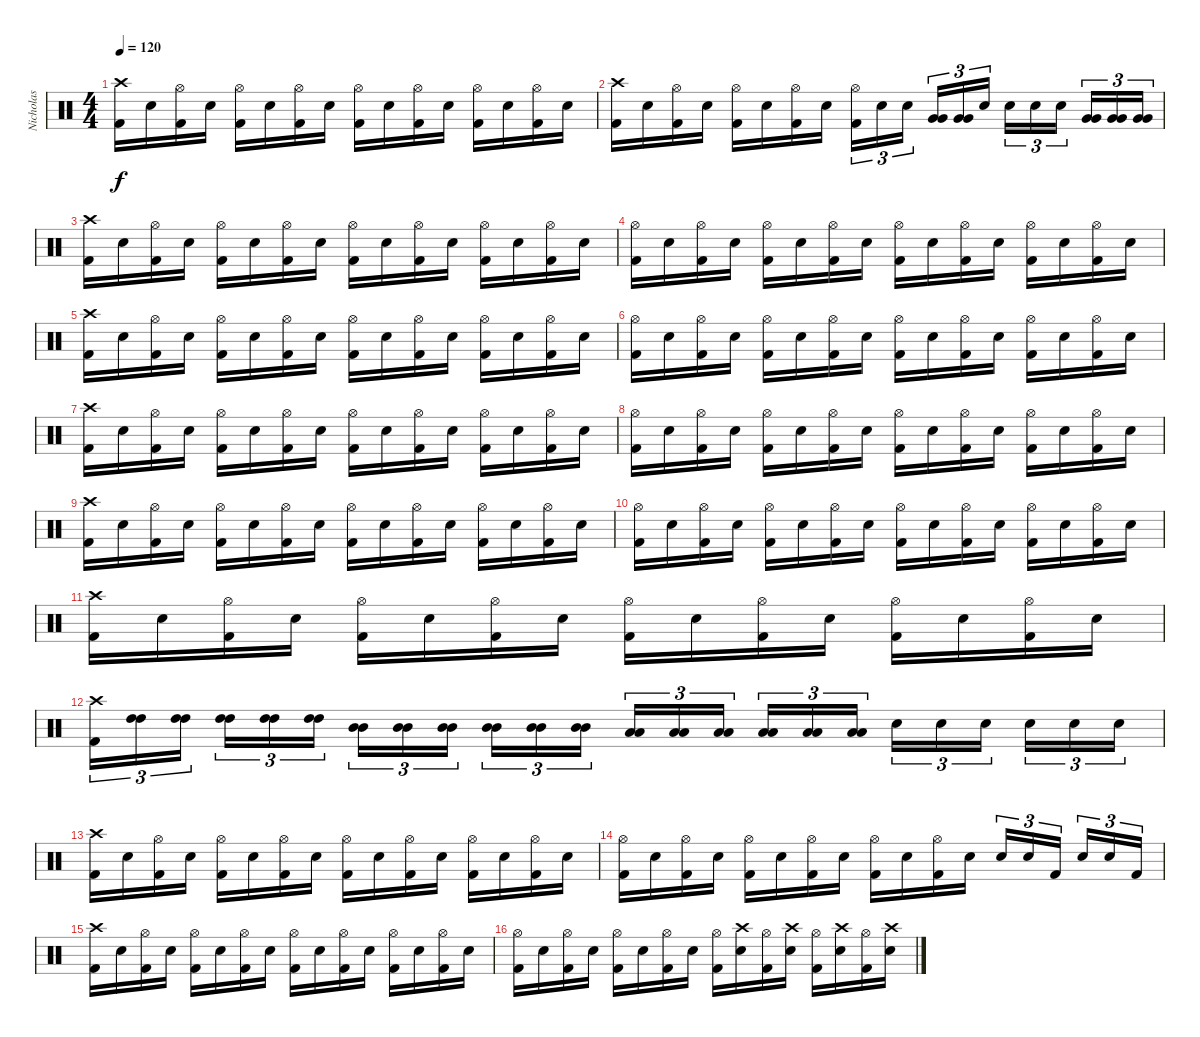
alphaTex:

\track ("Nicholas" "Nicholas") {instrument percussion}
\staff {score}
\articulation defaults
\ts (4 4)
\tempo 120
\clef neutral
\ks c
("Crash high (hit)" "Kick (hit) 2").16{dy f} "Electric Snare (hit)".16 ("Hi-Hat (open)" "Kick (hit) 2").16 "Electric Snare (hit)".16 ("Hi-Hat (open)" "Kick (hit) 2").16 "Electric Snare (hit)".16 ("Hi-Hat (open)" "Kick (hit) 2").16 "Electric Snare (hit)".16 ("Hi-Hat (open)" "Kick (hit) 2").16 "Electric Snare (hit)".16 ("Hi-Hat (open)" "Kick (hit) 2").16 "Electric Snare (hit)".16 ("Hi-Hat (open)" "Kick (hit) 2").16 "Electric Snare (hit)".16 ("Hi-Hat (open)" "Kick (hit) 2").16 "Electric Snare (hit)".16 |
("Crash high (hit)" "Kick (hit) 2").16 "Electric Snare (hit)".16 ("Hi-Hat (open)" "Kick (hit) 2").16 "Electric Snare (hit)".16 ("Hi-Hat (open)" "Kick (hit) 2").16 "Electric Snare (hit)".16 ("Hi-Hat (open)" "Kick (hit) 2").16 "Electric Snare (hit)".16 ("Hi-Hat (open)" "Kick (hit) 2").16{tu (3 2)} "Electric Snare (hit)".16{tu (3 2)} "Electric Snare (hit)".16{tu (3 2)} ("Very Low Tom (hit)" "Very Low Tom (hit)").16{tu (3 2)} ("Very Low Tom (hit)" "Very Low Tom (hit)").16{tu (3 2)} "Electric Snare (hit)".16{tu (3 2)} "Electric Snare (hit)".16{tu (3 2)} "Electric Snare (hit)".16{tu (3 2)} "Electric Snare (hit)".16{tu (3 2)} ("Very Low Tom (hit)" "Very Low Tom (hit)").16{tu (3 2)} ("Very Low Tom (hit)" "Very Low Tom (hit)").16{tu (3 2)} ("Very Low Tom (hit)" "Very Low Tom (hit)").16{tu (3 2)} |
("Crash high (hit)" "Kick (hit) 2").16{balance 8} "Electric Snare (hit)".16 ("Hi-Hat (open)" "Kick (hit) 2").16 "Electric Snare (hit)".16 ("Hi-Hat (open)" "Kick (hit) 2").16 "Electric Snare (hit)".16 ("Hi-Hat (open)" "Kick (hit) 2").16 "Electric Snare (hit)".16 ("Hi-Hat (open)" "Kick (hit) 2").16 "Electric Snare (hit)".16 ("Hi-Hat (open)" "Kick (hit) 2").16 "Electric Snare (hit)".16 ("Hi-Hat (open)" "Kick (hit) 2").16 "Electric Snare (hit)".16 ("Hi-Hat (open)" "Kick (hit) 2").16 "Electric Snare (hit)".16 |
("Hi-Hat (open)" "Kick (hit) 2").16 "Electric Snare (hit)".16 ("Hi-Hat (open)" "Kick (hit) 2").16 "Electric Snare (hit)".16 ("Hi-Hat (open)" "Kick (hit) 2").16 "Electric Snare (hit)".16 ("Hi-Hat (open)" "Kick (hit) 2").16 "Electric Snare (hit)".16 ("Hi-Hat (open)" "Kick (hit) 2").16 "Electric Snare (hit)".16 ("Hi-Hat (open)" "Kick (hit) 2").16 "Electric Snare (hit)".16 ("Hi-Hat (open)" "Kick (hit) 2").16 "Electric Snare (hit)".16 ("Hi-Hat (open)" "Kick (hit) 2").16 "Electric Snare (hit)".16 |
("Crash high (hit)" "Kick (hit) 2").16 "Electric Snare (hit)".16 ("Hi-Hat (open)" "Kick (hit) 2").16 "Electric Snare (hit)".16 ("Hi-Hat (open)" "Kick (hit) 2").16 "Electric Snare (hit)".16 ("Hi-Hat (open)" "Kick (hit) 2").16 "Electric Snare (hit)".16 ("Hi-Hat (open)" "Kick (hit) 2").16 "Electric Snare (hit)".16 ("Hi-Hat (open)" "Kick (hit) 2").16 "Electric Snare (hit)".16 ("Hi-Hat (open)" "Kick (hit) 2").16 "Electric Snare (hit)".16 ("Hi-Hat (open)" "Kick (hit) 2").16 "Electric Snare (hit)".16 |
("Hi-Hat (open)" "Kick (hit) 2").16 "Electric Snare (hit)".16 ("Hi-Hat (open)" "Kick (hit) 2").16 "Electric Snare (hit)".16 ("Hi-Hat (open)" "Kick (hit) 2").16 "Electric Snare (hit)".16 ("Hi-Hat (open)" "Kick (hit) 2").16 "Electric Snare (hit)".16 ("Hi-Hat (open)" "Kick (hit) 2").16 "Electric Snare (hit)".16 ("Hi-Hat (open)" "Kick (hit) 2").16 "Electric Snare (hit)".16 ("Hi-Hat (open)" "Kick (hit) 2").16 "Electric Snare (hit)".16 ("Hi-Hat (open)" "Kick (hit) 2").16 "Electric Snare (hit)".16 |
("Crash high (hit)" "Kick (hit) 2").16 "Electric Snare (hit)".16 ("Hi-Hat (open)" "Kick (hit) 2").16 "Electric Snare (hit)".16 ("Hi-Hat (open)" "Kick (hit) 2").16 "Electric Snare (hit)".16 ("Hi-Hat (open)" "Kick (hit) 2").16 "Electric Snare (hit)".16 ("Hi-Hat (open)" "Kick (hit) 2").16 "Electric Snare (hit)".16 ("Hi-Hat (open)" "Kick (hit) 2").16 "Electric Snare (hit)".16 ("Hi-Hat (open)" "Kick (hit) 2").16 "Electric Snare (hit)".16 ("Hi-Hat (open)" "Kick (hit) 2").16 "Electric Snare (hit)".16 |
("Hi-Hat (open)" "Kick (hit) 2").16 "Electric Snare (hit)".16 ("Hi-Hat (open)" "Kick (hit) 2").16 "Electric Snare (hit)".16 ("Hi-Hat (open)" "Kick (hit) 2").16 "Electric Snare (hit)".16 ("Hi-Hat (open)" "Kick (hit) 2").16 "Electric Snare (hit)".16 ("Hi-Hat (open)" "Kick (hit) 2").16 "Electric Snare (hit)".16 ("Hi-Hat (open)" "Kick (hit) 2").16 "Electric Snare (hit)".16 ("Hi-Hat (open)" "Kick (hit) 2").16 "Electric Snare (hit)".16 ("Hi-Hat (open)" "Kick (hit) 2").16 "Electric Snare (hit)".16 |
("Crash high (hit)" "Kick (hit) 2").16 "Electric Snare (hit)".16 ("Hi-Hat (open)" "Kick (hit) 2").16 "Electric Snare (hit)".16 ("Hi-Hat (open)" "Kick (hit) 2").16 "Electric Snare (hit)".16 ("Hi-Hat (open)" "Kick (hit) 2").16 "Electric Snare (hit)".16 ("Hi-Hat (open)" "Kick (hit) 2").16 "Electric Snare (hit)".16 ("Hi-Hat (open)" "Kick (hit) 2").16 "Electric Snare (hit)".16 ("Hi-Hat (open)" "Kick (hit) 2").16 "Electric Snare (hit)".16 ("Hi-Hat (open)" "Kick (hit) 2").16 "Electric Snare (hit)".16 |
("Hi-Hat (open)" "Kick (hit) 2").16 "Electric Snare (hit)".16 ("Hi-Hat (open)" "Kick (hit) 2").16 "Electric Snare (hit)".16 ("Hi-Hat (open)" "Kick (hit) 2").16 "Electric Snare (hit)".16 ("Hi-Hat (open)" "Kick (hit) 2").16 "Electric Snare (hit)".16 ("Hi-Hat (open)" "Kick (hit) 2").16 "Electric Snare (hit)".16 ("Hi-Hat (open)" "Kick (hit) 2").16 "Electric Snare (hit)".16 ("Hi-Hat (open)" "Kick (hit) 2").16 "Electric Snare (hit)".16 ("Hi-Hat (open)" "Kick (hit) 2").16 "Electric Snare (hit)".16 |
("Crash high (hit)" "Kick (hit) 2").16 "Electric Snare (hit)".16 ("Hi-Hat (open)" "Kick (hit) 2").16 "Electric Snare (hit)".16 ("Hi-Hat (open)" "Kick (hit) 2").16 "Electric Snare (hit)".16 ("Hi-Hat (open)" "Kick (hit) 2").16 "Electric Snare (hit)".16 ("Hi-Hat (open)" "Kick (hit) 2").16 "Electric Snare (hit)".16 ("Hi-Hat (open)" "Kick (hit) 2").16 "Electric Snare (hit)".16 ("Hi-Hat (open)" "Kick (hit) 2").16 "Electric Snare (hit)".16 ("Hi-Hat (open)" "Kick (hit) 2").16 "Electric Snare (hit)".16 |
("Crash high (hit)" "Kick (hit) 2").16{tu (3 2)} ("High Tom (hit)" "High Tom (hit)").16{tu (3 2) balance 10} ("High Tom (hit)" "High Tom (hit)").16{tu (3 2)} ("High Tom (hit)" "High Tom (hit)").16{tu (3 2)} ("High Tom (hit)" "High Tom (hit)").16{tu (3 2)} ("High Tom (hit)" "High Tom (hit)").16{tu (3 2)} ("Mid Tom (hit)" "Mid Tom (hit)").16{tu (3 2) balance 8} ("Mid Tom (hit)" "Mid Tom (hit)").16{tu (3 2)} ("Mid Tom (hit)" "Mid Tom (hit)").16{tu (3 2)} ("Mid Tom (hit)" "Mid Tom (hit)").16{tu (3 2)} ("Mid Tom (hit)" "Mid Tom (hit)").16{tu (3 2)} ("Mid Tom (hit)" "Mid Tom (hit)").16{tu (3 2)} ("Low Tom (hit)" "Low Tom (hit)").16{tu (3 2) balance 6} ("Low Tom (hit)" "Low Tom (hit)").16{tu (3 2)} ("Low Tom (hit)" "Low Tom (hit)").16{tu (3 2)} ("Low Tom (hit)" "Low Tom (hit)").16{tu (3 2)} ("Low Tom (hit)" "Low Tom (hit)").16{tu (3 2)} ("Low Tom (hit)" "Low Tom (hit)").16{tu (3 2)} "Electric Snare (hit)".16{tu (3 2) balance 8} "Electric Snare (hit)".16{tu (3 2)} "Electric Snare (hit)".16{tu (3 2)} "Electric Snare (hit)".16{tu (3 2)} "Electric Snare (hit)".16{tu (3 2)} "Electric Snare (hit)".16{tu (3 2)} |
("Crash high (hit)" "Kick (hit) 2").16{balance 8} "Electric Snare (hit)".16 ("Hi-Hat (open)" "Kick (hit) 2").16 "Electric Snare (hit)".16 ("Hi-Hat (open)" "Kick (hit) 2").16 "Electric Snare (hit)".16 ("Hi-Hat (open)" "Kick (hit) 2").16 "Electric Snare (hit)".16 ("Hi-Hat (open)" "Kick (hit) 2").16 "Electric Snare (hit)".16 ("Hi-Hat (open)" "Kick (hit) 2").16 "Electric Snare (hit)".16 ("Hi-Hat (open)" "Kick (hit) 2").16 "Electric Snare (hit)".16 ("Hi-Hat (open)" "Kick (hit) 2").16 "Electric Snare (hit)".16 |
("Hi-Hat (open)" "Kick (hit) 2").16 "Electric Snare (hit)".16 ("Hi-Hat (open)" "Kick (hit) 2").16 "Electric Snare (hit)".16 ("Hi-Hat (open)" "Kick (hit) 2").16 "Electric Snare (hit)".16 ("Hi-Hat (open)" "Kick (hit) 2").16 "Electric Snare (hit)".16 ("Hi-Hat (open)" "Kick (hit) 2").16 "Electric Snare (hit)".16 ("Hi-Hat (open)" "Kick (hit) 2").16 "Electric Snare (hit)".16 "Electric Snare (hit)".16{tu (3 2)} "Electric Snare (hit)".16{tu (3 2)} "Kick (hit) 2".16{tu (3 2)} "Electric Snare (hit)".16{tu (3 2)} "Electric Snare (hit)".16{tu (3 2)} "Kick (hit) 2".16{tu (3 2)} |
("Crash high (hit)" "Kick (hit) 2").16 "Electric Snare (hit)".16 ("Hi-Hat (open)" "Kick (hit) 2").16 "Electric Snare (hit)".16 ("Hi-Hat (open)" "Kick (hit) 2").16 "Electric Snare (hit)".16 ("Hi-Hat (open)" "Kick (hit) 2").16 "Electric Snare (hit)".16 ("Hi-Hat (open)" "Kick (hit) 2").16 "Electric Snare (hit)".16 ("Hi-Hat (open)" "Kick (hit) 2").16 "Electric Snare (hit)".16 ("Hi-Hat (open)" "Kick (hit) 2").16 "Electric Snare (hit)".16 ("Hi-Hat (open)" "Kick (hit) 2").16 "Electric Snare (hit)".16 |
("Hi-Hat (open)" "Kick (hit) 2").16 "Electric Snare (hit)".16 ("Hi-Hat (open)" "Kick (hit) 2").16 "Electric Snare (hit)".16 ("Hi-Hat (open)" "Kick (hit) 2").16 "Electric Snare (hit)".16 ("Hi-Hat (open)" "Kick (hit) 2").16 "Electric Snare (hit)".16 ("Hi-Hat (open)" "Kick (hit) 2").16 ("Crash high (hit)" "Electric Snare (hit)").16 ("Hi-Hat (open)" "Kick (hit) 2").16 ("Crash high (hit)" "Electric Snare (hit)").16 ("Hi-Hat (open)" "Kick (hit) 2").16 ("Crash high (hit)" "Electric Snare (hit)").16 ("Hi-Hat (open)" "Kick (hit) 2").16 ("Crash high (hit)" "Electric Snare (hit)").16
